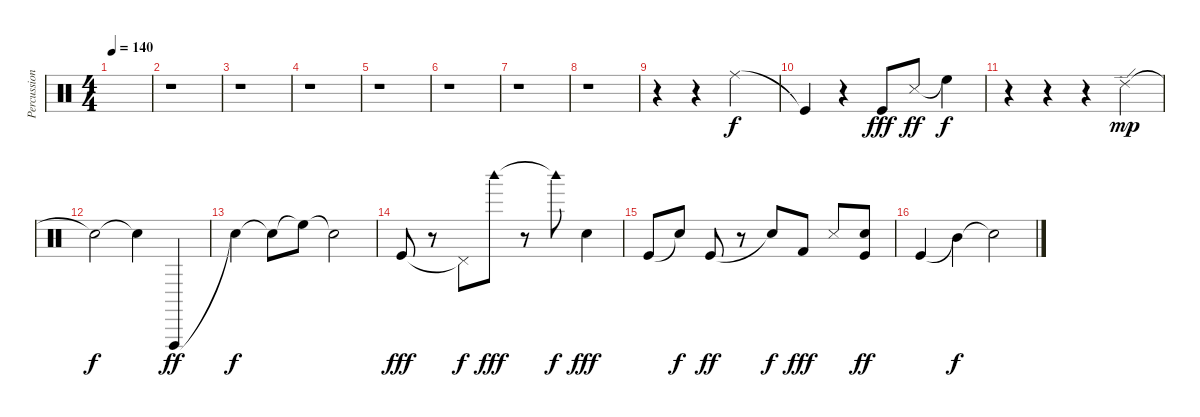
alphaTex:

\track ("Percussions" "Percussion") {instrument percussion}
\staff {score}
\articulation defaults
\ts (4 4)
\tempo 140
\clef neutral
\ks c
|
r.1 |
r.1 |
r.1 |
r.1 |
r.1 |
r.1 |
r.1 |
r.4 r.4 "Ride (middle)".2 |
"Kick (hit)"{t}.4 r.4 "Kick (hit)".8{dy fff balance 0} "Snare (side stick) 3".8{dy ff balance 16} "High Floor Tom (hit)"{t}.4{dy f} |
r.4 r.4 r.4 "Ride (edge) 2".4{dy mp balance 8} |
"Snare (hit)"{t}.2{dy f} "Snare (hit)"{t}.4 "Vibraslap (hit)".4{dy ff balance 1} |
"Snare (hit)"{t}.4{dy f balance 3} "Snare (hit)"{t}.8{balance 6} "High Floor Tom (hit)"{t}.8{balance 10} "Snare (hit)"{t}.2{volume 10 balance 16} |
"Kick (hit)".8{dy fff balance 8} r.8 "Pedal Hi-Hat (hit)"{t}.8{dy f} "Woodblock high (hit)".8{dy fff} r.8 "Woodblock high (hit)"{t}.8{dy f} "Electric Snare (hit)".4{dy fff balance 0} |
"Kick (hit)".8 "Snare (hit)"{t}.8{dy f} "Kick (hit)".8{dy ff} r.8 "Snare (hit)"{t}.8{dy f} "Kick (hit) 2".8{dy fff} "Snare (side stick) 3".8 ("Kick (hit)" "Snare (hit)").8{dy ff} |
"Kick (hit)".4{balance 0} "Mid Tom (hit)"{t}.4{dy f} "Snare (hit)"{t}.2
